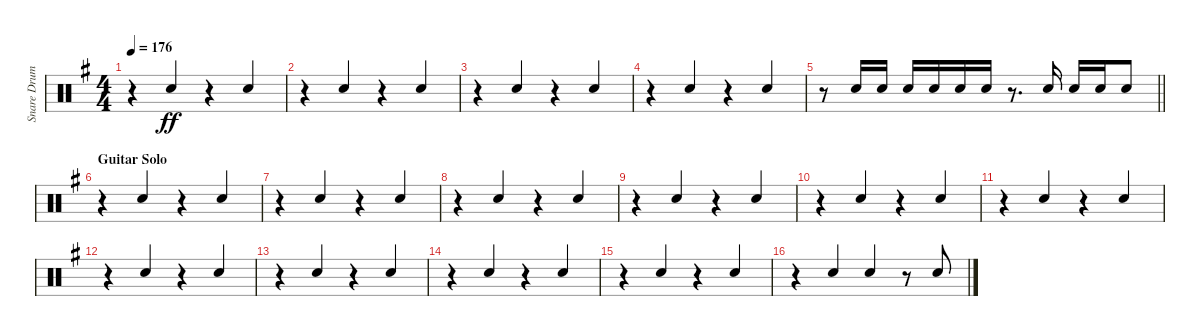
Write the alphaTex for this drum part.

\track ("Snare Drum" "Snare Drum") {instrument percussion}
\staff {score}
\articulation defaults
\ts (4 4)
\tempo 176
\clef neutral
\ks eminor
r.4{dy ff} "Electric Snare (hit)".4{beam Up} r.4 "Electric Snare (hit)".4{beam Up} |
r.4 "Electric Snare (hit)".4{beam Up} r.4 "Electric Snare (hit)".4{beam Up} |
r.4 "Electric Snare (hit)".4{beam Up} r.4 "Electric Snare (hit)".4{beam Up} |
r.4 "Electric Snare (hit)".4{beam Up} r.4 "Electric Snare (hit)".4{beam Up} |
\barLineRight lightlight
r.8 "Electric Snare (hit)".16{beam Up} "Electric Snare (hit)".16{beam Up} "Electric Snare (hit)".16{beam Up} "Electric Snare (hit)".16{beam Up} "Electric Snare (hit)".16{beam Up} "Electric Snare (hit)".16{beam Up} r.8{d} "Electric Snare (hit)".16{beam Up} "Electric Snare (hit)".16{beam Up} "Electric Snare (hit)".16{beam Up} "Electric Snare (hit)".8{beam Up} |
\section ("" "Guitar Solo")
r.4 "Electric Snare (hit)".4{beam Up} r.4 "Electric Snare (hit)".4{beam Up} |
r.4 "Electric Snare (hit)".4{beam Up} r.4 "Electric Snare (hit)".4{beam Up} |
r.4 "Electric Snare (hit)".4{beam Up} r.4 "Electric Snare (hit)".4{beam Up} |
r.4 "Electric Snare (hit)".4{beam Up} r.4 "Electric Snare (hit)".4{beam Up} |
r.4 "Electric Snare (hit)".4{beam Up} r.4 "Electric Snare (hit)".4{beam Up} |
r.4 "Electric Snare (hit)".4{beam Up} r.4 "Electric Snare (hit)".4{beam Up} |
r.4 "Electric Snare (hit)".4{beam Up} r.4 "Electric Snare (hit)".4{beam Up} |
r.4 "Electric Snare (hit)".4{beam Up} r.4 "Electric Snare (hit)".4{beam Up} |
r.4 "Electric Snare (hit)".4{beam Up} r.4 "Electric Snare (hit)".4{beam Up} |
r.4 "Electric Snare (hit)".4{beam Up} r.4 "Electric Snare (hit)".4{beam Up} |
r.4 "Electric Snare (hit)".4{beam Up} "Electric Snare (hit)".4{beam Up} r.8 "Electric Snare (hit)".8{beam Up}
